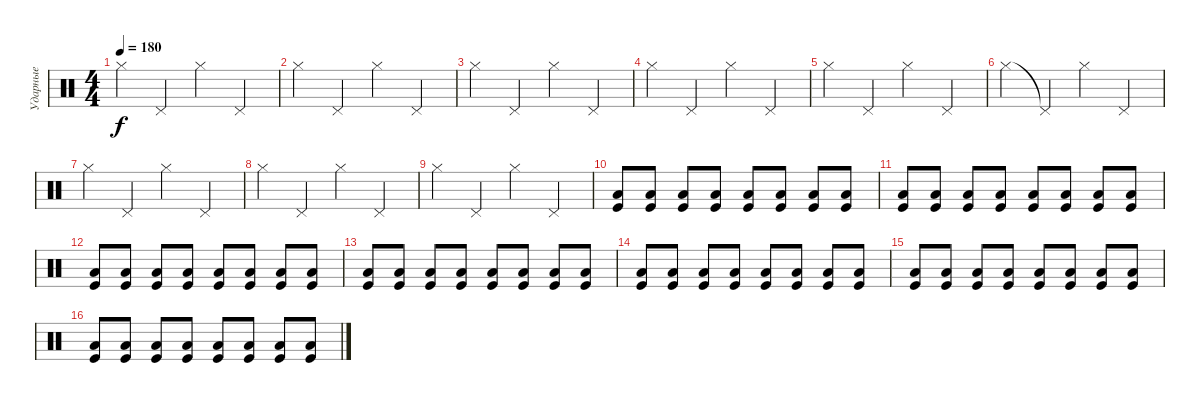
\track ("Ударные" "Ударные") {instrument percussion}
\staff {score}
\articulation defaults
\ts (4 4)
\tempo 180
\clef neutral
\ks c "Hi-Hat (closed)".4{dy f} "Pedal Hi-Hat (hit)".4 "Hi-Hat (closed)".4 "Pedal Hi-Hat (hit)".4
|
"Hi-Hat (closed)".4 "Pedal Hi-Hat (hit)".4 "Hi-Hat (closed)".4 "Pedal Hi-Hat (hit)".4 |
"Hi-Hat (closed)".4 "Pedal Hi-Hat (hit)".4 "Hi-Hat (closed)".4 "Pedal Hi-Hat (hit)".4 |
"Hi-Hat (closed)".4 "Pedal Hi-Hat (hit)".4 "Hi-Hat (closed)".4 "Pedal Hi-Hat (hit)".4 |
"Hi-Hat (closed)".4 "Pedal Hi-Hat (hit)".4 "Hi-Hat (closed)".4 "Pedal Hi-Hat (hit)".4 |
"Hi-Hat (closed)".4 "Pedal Hi-Hat (hit)"{t}.4 "Hi-Hat (closed)".4 "Pedal Hi-Hat (hit)".4 |
"Hi-Hat (closed)".4 "Pedal Hi-Hat (hit)".4 "Hi-Hat (closed)".4 "Pedal Hi-Hat (hit)".4 |
"Hi-Hat (closed)".4 "Pedal Hi-Hat (hit)".4 "Hi-Hat (closed)".4 "Pedal Hi-Hat (hit)".4 |
"Hi-Hat (closed)".4 "Pedal Hi-Hat (hit)".4 "Hi-Hat (closed)".4 "Pedal Hi-Hat (hit)".4 |
("Low Tom (hit)" "Kick (hit)").8 ("Low Tom (hit)" "Kick (hit)").8 ("Low Tom (hit)" "Kick (hit)").8 ("Low Tom (hit)" "Kick (hit)").8 ("Low Tom (hit)" "Kick (hit)").8 ("Low Tom (hit)" "Kick (hit)").8 ("Low Tom (hit)" "Kick (hit)").8 ("Low Tom (hit)" "Kick (hit)").8 |
("Low Tom (hit)" "Kick (hit)").8 ("Low Tom (hit)" "Kick (hit)").8 ("Low Tom (hit)" "Kick (hit)").8 ("Low Tom (hit)" "Kick (hit)").8 ("Low Tom (hit)" "Kick (hit)").8 ("Low Tom (hit)" "Kick (hit)").8 ("Low Tom (hit)" "Kick (hit)").8 ("Low Tom (hit)" "Kick (hit)").8 |
("Low Tom (hit)" "Kick (hit)").8 ("Low Tom (hit)" "Kick (hit)").8 ("Low Tom (hit)" "Kick (hit)").8 ("Low Tom (hit)" "Kick (hit)").8 ("Low Tom (hit)" "Kick (hit)").8 ("Low Tom (hit)" "Kick (hit)").8 ("Low Tom (hit)" "Kick (hit)").8 ("Low Tom (hit)" "Kick (hit)").8 |
("Low Tom (hit)" "Kick (hit)").8 ("Low Tom (hit)" "Kick (hit)").8 ("Low Tom (hit)" "Kick (hit)").8 ("Low Tom (hit)" "Kick (hit)").8 ("Low Tom (hit)" "Kick (hit)").8 ("Low Tom (hit)" "Kick (hit)").8 ("Low Tom (hit)" "Kick (hit)").8 ("Low Tom (hit)" "Kick (hit)").8 |
("Low Tom (hit)" "Kick (hit)").8 ("Low Tom (hit)" "Kick (hit)").8 ("Low Tom (hit)" "Kick (hit)").8 ("Low Tom (hit)" "Kick (hit)").8 ("Low Tom (hit)" "Kick (hit)").8 ("Low Tom (hit)" "Kick (hit)").8 ("Low Tom (hit)" "Kick (hit)").8 ("Low Tom (hit)" "Kick (hit)").8 |
("Low Tom (hit)" "Kick (hit)").8 ("Low Tom (hit)" "Kick (hit)").8 ("Low Tom (hit)" "Kick (hit)").8 ("Low Tom (hit)" "Kick (hit)").8 ("Low Tom (hit)" "Kick (hit)").8 ("Low Tom (hit)" "Kick (hit)").8 ("Low Tom (hit)" "Kick (hit)").8 ("Low Tom (hit)" "Kick (hit)").8 |
("Low Tom (hit)" "Kick (hit)").8 ("Low Tom (hit)" "Kick (hit)").8 ("Low Tom (hit)" "Kick (hit)").8 ("Low Tom (hit)" "Kick (hit)").8 ("Low Tom (hit)" "Kick (hit)").8 ("Low Tom (hit)" "Kick (hit)").8 ("Low Tom (hit)" "Kick (hit)").8 ("Low Tom (hit)" "Kick (hit)").8
